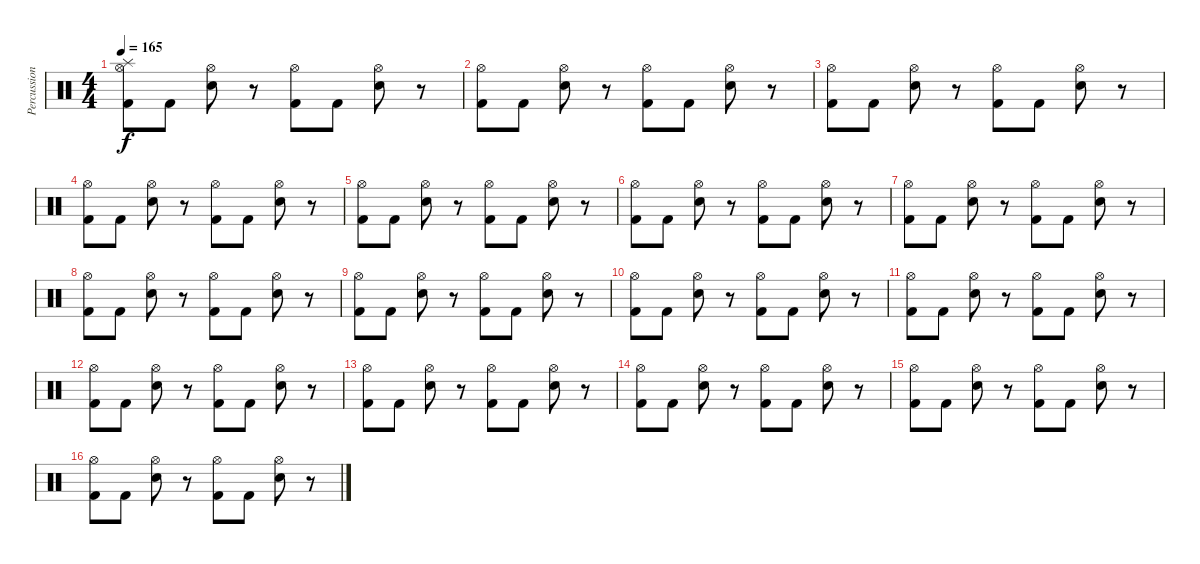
\track ("Percussion" "Percussion") {instrument percussion}
\staff {score}
\articulation defaults
\ts (4 4)
\tempo 165
\clef neutral
\ks c
("Hi-Hat (open)" "Splash (hit)" "Kick (hit) 2").8{dy f} "Kick (hit) 2".8 ("Hi-Hat (open)" "Electric Snare (hit)").8 r.8 ("Hi-Hat (open)" "Kick (hit) 2").8 "Kick (hit) 2".8 ("Hi-Hat (open)" "Electric Snare (hit)").8 r.8 |
("Hi-Hat (open)" "Kick (hit) 2").8 "Kick (hit) 2".8 ("Hi-Hat (open)" "Electric Snare (hit)").8 r.8 ("Hi-Hat (open)" "Kick (hit) 2").8 "Kick (hit) 2".8 ("Hi-Hat (open)" "Electric Snare (hit)").8 r.8 |
("Hi-Hat (open)" "Kick (hit) 2").8 "Kick (hit) 2".8 ("Hi-Hat (open)" "Electric Snare (hit)").8 r.8 ("Hi-Hat (open)" "Kick (hit) 2").8 "Kick (hit) 2".8 ("Hi-Hat (open)" "Electric Snare (hit)").8 r.8 |
("Hi-Hat (open)" "Kick (hit) 2").8 "Kick (hit) 2".8 ("Hi-Hat (open)" "Electric Snare (hit)").8 r.8 ("Hi-Hat (open)" "Kick (hit) 2").8 "Kick (hit) 2".8 ("Hi-Hat (open)" "Electric Snare (hit)").8 r.8 |
("Hi-Hat (open)" "Kick (hit) 2").8 "Kick (hit) 2".8 ("Hi-Hat (open)" "Electric Snare (hit)").8 r.8 ("Hi-Hat (open)" "Kick (hit) 2").8 "Kick (hit) 2".8 ("Hi-Hat (open)" "Electric Snare (hit)").8 r.8 |
("Hi-Hat (open)" "Kick (hit) 2").8 "Kick (hit) 2".8 ("Hi-Hat (open)" "Electric Snare (hit)").8 r.8 ("Hi-Hat (open)" "Kick (hit) 2").8 "Kick (hit) 2".8 ("Hi-Hat (open)" "Electric Snare (hit)").8 r.8 |
("Hi-Hat (open)" "Kick (hit) 2").8 "Kick (hit) 2".8 ("Hi-Hat (open)" "Electric Snare (hit)").8 r.8 ("Hi-Hat (open)" "Kick (hit) 2").8 "Kick (hit) 2".8 ("Hi-Hat (open)" "Electric Snare (hit)").8 r.8 |
("Hi-Hat (open)" "Kick (hit) 2").8 "Kick (hit) 2".8 ("Hi-Hat (open)" "Electric Snare (hit)").8 r.8 ("Hi-Hat (open)" "Kick (hit) 2").8 "Kick (hit) 2".8 ("Hi-Hat (open)" "Electric Snare (hit)").8 r.8 |
("Hi-Hat (open)" "Kick (hit) 2").8 "Kick (hit) 2".8 ("Hi-Hat (open)" "Electric Snare (hit)").8 r.8 ("Hi-Hat (open)" "Kick (hit) 2").8 "Kick (hit) 2".8 ("Hi-Hat (open)" "Electric Snare (hit)").8 r.8 |
("Hi-Hat (open)" "Kick (hit) 2").8 "Kick (hit) 2".8 ("Hi-Hat (open)" "Electric Snare (hit)").8 r.8 ("Hi-Hat (open)" "Kick (hit) 2").8 "Kick (hit) 2".8 ("Hi-Hat (open)" "Electric Snare (hit)").8 r.8 |
("Hi-Hat (open)" "Kick (hit) 2").8 "Kick (hit) 2".8 ("Hi-Hat (open)" "Electric Snare (hit)").8 r.8 ("Hi-Hat (open)" "Kick (hit) 2").8 "Kick (hit) 2".8 ("Hi-Hat (open)" "Electric Snare (hit)").8 r.8 |
("Hi-Hat (open)" "Kick (hit) 2").8 "Kick (hit) 2".8 ("Hi-Hat (open)" "Electric Snare (hit)").8 r.8 ("Hi-Hat (open)" "Kick (hit) 2").8 "Kick (hit) 2".8 ("Hi-Hat (open)" "Electric Snare (hit)").8 r.8 |
("Hi-Hat (open)" "Kick (hit) 2").8 "Kick (hit) 2".8 ("Hi-Hat (open)" "Electric Snare (hit)").8 r.8 ("Hi-Hat (open)" "Kick (hit) 2").8 "Kick (hit) 2".8 ("Hi-Hat (open)" "Electric Snare (hit)").8 r.8 |
("Hi-Hat (open)" "Kick (hit) 2").8 "Kick (hit) 2".8 ("Hi-Hat (open)" "Electric Snare (hit)").8 r.8 ("Hi-Hat (open)" "Kick (hit) 2").8 "Kick (hit) 2".8 ("Hi-Hat (open)" "Electric Snare (hit)").8 r.8 |
("Hi-Hat (open)" "Kick (hit) 2").8 "Kick (hit) 2".8 ("Hi-Hat (open)" "Electric Snare (hit)").8 r.8 ("Hi-Hat (open)" "Kick (hit) 2").8 "Kick (hit) 2".8 ("Hi-Hat (open)" "Electric Snare (hit)").8 r.8 |
("Hi-Hat (open)" "Kick (hit) 2").8 "Kick (hit) 2".8 ("Hi-Hat (open)" "Electric Snare (hit)").8 r.8 ("Hi-Hat (open)" "Kick (hit) 2").8 "Kick (hit) 2".8 ("Hi-Hat (open)" "Electric Snare (hit)").8 r.8
